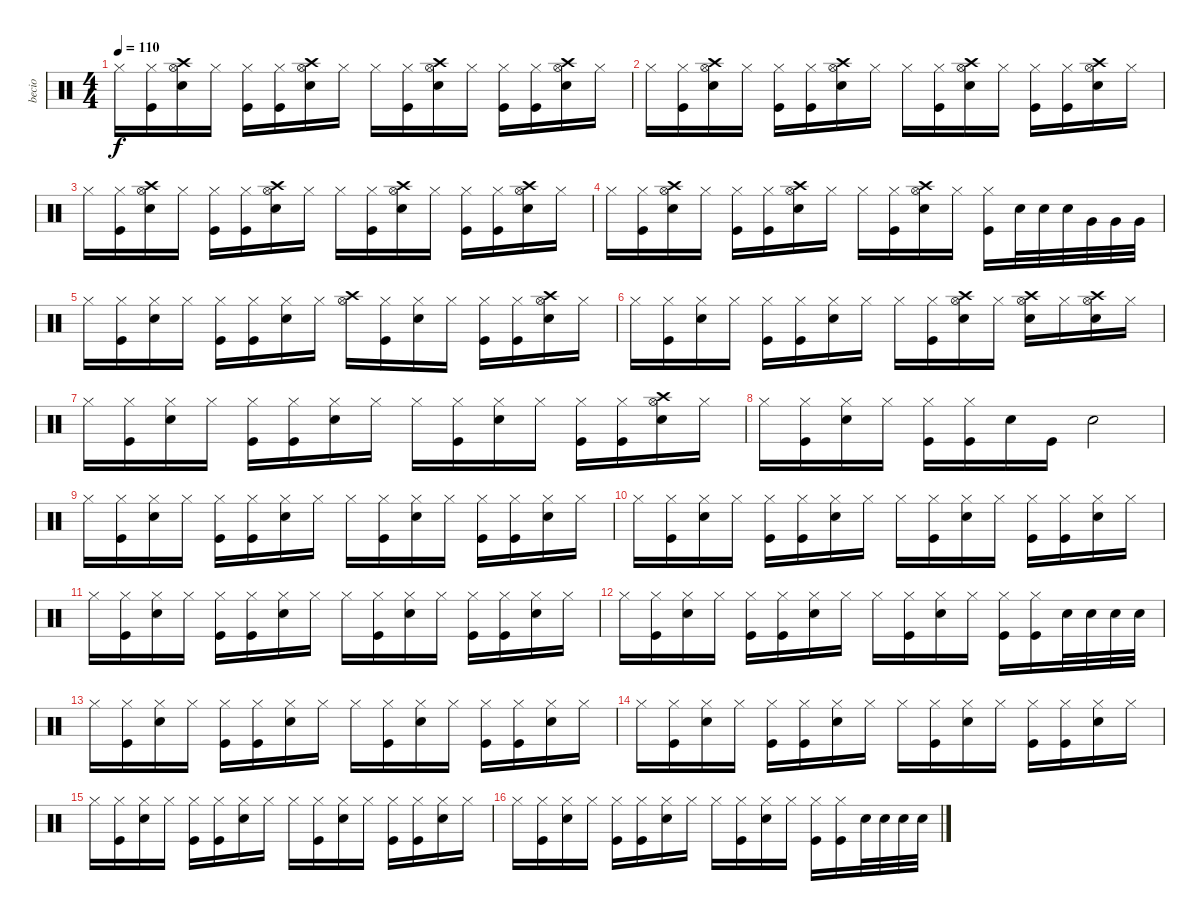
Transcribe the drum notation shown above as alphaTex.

\track ("becio" "becio") {instrument percussion}
\staff {score}
\articulation defaults
\ts (4 4)
\tempo 110
\clef neutral
\ks c "Hi-Hat (closed)".16{dy f}
("Kick (hit)" "Hi-Hat (closed)").16 ("Snare (hit) 2" "Hi-Hat (open)" "Crash high (hit)").16 "Hi-Hat (closed)".16 ("Kick (hit)" "Hi-Hat (closed)").16 ("Kick (hit)" "Hi-Hat (closed)").16 ("Snare (hit) 2" "Hi-Hat (open)" "Crash high (hit)").16 "Hi-Hat (closed)".16 "Hi-Hat (closed)".16 ("Kick (hit)" "Hi-Hat (closed)").16 ("Snare (hit) 2" "Hi-Hat (open)" "Crash high (hit)").16 "Hi-Hat (closed)".16 ("Kick (hit)" "Hi-Hat (closed)").16 ("Kick (hit)" "Hi-Hat (closed)").16 ("Snare (hit) 2" "Hi-Hat (open)" "Crash high (hit)").16 "Hi-Hat (closed)".16 |
"Hi-Hat (closed)".16 ("Kick (hit)" "Hi-Hat (closed)").16 ("Snare (hit) 2" "Hi-Hat (open)" "Crash high (hit)").16 "Hi-Hat (closed)".16 ("Kick (hit)" "Hi-Hat (closed)").16 ("Kick (hit)" "Hi-Hat (closed)").16 ("Snare (hit) 2" "Hi-Hat (open)" "Crash high (hit)").16 "Hi-Hat (closed)".16 "Hi-Hat (closed)".16 ("Kick (hit)" "Hi-Hat (closed)").16 ("Snare (hit) 2" "Hi-Hat (open)" "Crash high (hit)").16 "Hi-Hat (closed)".16 ("Kick (hit)" "Hi-Hat (closed)").16 ("Kick (hit)" "Hi-Hat (closed)").16 ("Snare (hit) 2" "Hi-Hat (open)" "Crash high (hit)").16 "Hi-Hat (closed)".16 |
"Hi-Hat (closed)".16 ("Kick (hit)" "Hi-Hat (closed)").16 ("Snare (hit) 2" "Hi-Hat (open)" "Crash high (hit)").16 "Hi-Hat (closed)".16 ("Kick (hit)" "Hi-Hat (closed)").16 ("Kick (hit)" "Hi-Hat (closed)").16 ("Snare (hit) 2" "Hi-Hat (open)" "Crash high (hit)").16 "Hi-Hat (closed)".16 "Hi-Hat (closed)".16 ("Kick (hit)" "Hi-Hat (closed)").16 ("Snare (hit) 2" "Hi-Hat (open)" "Crash high (hit)").16 "Hi-Hat (closed)".16 ("Kick (hit)" "Hi-Hat (closed)").16 ("Kick (hit)" "Hi-Hat (closed)").16 ("Snare (hit) 2" "Hi-Hat (open)" "Crash high (hit)").16 "Hi-Hat (closed)".16 |
"Hi-Hat (closed)".16 ("Kick (hit)" "Hi-Hat (closed)").16 ("Snare (hit) 2" "Hi-Hat (open)" "Crash high (hit)").16 "Hi-Hat (closed)".16 ("Kick (hit)" "Hi-Hat (closed)").16 ("Kick (hit)" "Hi-Hat (closed)").16 ("Snare (hit) 2" "Hi-Hat (open)" "Crash high (hit)").16 "Hi-Hat (closed)".16 "Hi-Hat (closed)".16 ("Kick (hit)" "Hi-Hat (closed)").16 ("Snare (hit) 2" "Hi-Hat (open)" "Crash high (hit)").16 "Hi-Hat (closed)".16 ("Kick (hit)" "Hi-Hat (closed)").16 "Snare (hit) 2".32 "Snare (hit) 2".32 "Snare (hit) 2".32 "Very Low Tom (hit)".32 "Very Low Tom (hit)".32 "Very Low Tom (hit)".32 |
"Hi-Hat (closed)".16 ("Kick (hit)" "Hi-Hat (closed)").16 ("Snare (hit) 2" "Hi-Hat (closed)").16 "Hi-Hat (closed)".16 ("Kick (hit)" "Hi-Hat (closed)").16 ("Kick (hit)" "Hi-Hat (closed)").16 ("Snare (hit) 2" "Hi-Hat (closed)").16 "Hi-Hat (closed)".16 ("Hi-Hat (open)" "Crash high (hit)").16 ("Kick (hit)" "Hi-Hat (closed)").16 ("Snare (hit) 2" "Hi-Hat (closed)").16 "Hi-Hat (closed)".16 ("Kick (hit)" "Hi-Hat (closed)").16 ("Kick (hit)" "Hi-Hat (closed)").16 ("Snare (hit) 2" "Hi-Hat (open)" "Crash high (hit)").16 "Hi-Hat (closed)".16 |
"Hi-Hat (closed)".16 ("Kick (hit)" "Hi-Hat (closed)").16 ("Snare (hit) 2" "Hi-Hat (closed)").16 "Hi-Hat (closed)".16 ("Kick (hit)" "Hi-Hat (closed)").16 ("Kick (hit)" "Hi-Hat (closed)").16 ("Snare (hit) 2" "Hi-Hat (closed)").16 "Hi-Hat (closed)".16 "Hi-Hat (closed)".16 ("Kick (hit)" "Hi-Hat (closed)").16 ("Snare (hit) 2" "Hi-Hat (open)" "Crash high (hit)").16 "Hi-Hat (closed)".16 ("Snare (hit) 2" "Hi-Hat (open)" "Crash high (hit)").16 "Hi-Hat (closed)".16 ("Snare (hit) 2" "Hi-Hat (open)" "Crash high (hit)").16 "Hi-Hat (closed)".16 |
"Hi-Hat (closed)".16 ("Kick (hit)" "Hi-Hat (closed)").16 ("Snare (hit) 2" "Hi-Hat (closed)").16 "Hi-Hat (closed)".16 ("Kick (hit)" "Hi-Hat (closed)").16 ("Kick (hit)" "Hi-Hat (closed)").16 ("Snare (hit) 2" "Hi-Hat (closed)").16 "Hi-Hat (closed)".16 "Hi-Hat (closed)".16 ("Kick (hit)" "Hi-Hat (closed)").16 ("Snare (hit) 2" "Hi-Hat (closed)").16 "Hi-Hat (closed)".16 ("Kick (hit)" "Hi-Hat (closed)").16 ("Kick (hit)" "Hi-Hat (closed)").16 ("Snare (hit) 2" "Hi-Hat (open)" "Crash high (hit)").16 "Hi-Hat (closed)".16 |
"Hi-Hat (closed)".16 ("Kick (hit)" "Hi-Hat (closed)").16 ("Snare (hit) 2" "Hi-Hat (closed)").16 "Hi-Hat (closed)".16 ("Kick (hit)" "Hi-Hat (closed)").16 ("Kick (hit)" "Hi-Hat (closed)").16 "Snare (hit) 2".16 "Kick (hit)".16 "Snare (hit) 2".2 |
"Hi-Hat (closed)".16 ("Kick (hit)" "Hi-Hat (closed)").16 ("Snare (hit) 2" "Hi-Hat (closed)").16 "Hi-Hat (closed)".16 ("Kick (hit)" "Hi-Hat (closed)").16 ("Kick (hit)" "Hi-Hat (closed)").16 ("Snare (hit) 2" "Hi-Hat (closed)").16 "Hi-Hat (closed)".16 "Hi-Hat (closed)".16 ("Kick (hit)" "Hi-Hat (closed)").16 ("Snare (hit) 2" "Hi-Hat (closed)").16 "Hi-Hat (closed)".16 ("Kick (hit)" "Hi-Hat (closed)").16 ("Kick (hit)" "Hi-Hat (closed)").16 ("Snare (hit) 2" "Hi-Hat (closed)").16 "Hi-Hat (closed)".16 |
"Hi-Hat (closed)".16 ("Kick (hit)" "Hi-Hat (closed)").16 ("Snare (hit) 2" "Hi-Hat (closed)").16 "Hi-Hat (closed)".16 ("Kick (hit)" "Hi-Hat (closed)").16 ("Kick (hit)" "Hi-Hat (closed)").16 ("Snare (hit) 2" "Hi-Hat (closed)").16 "Hi-Hat (closed)".16 "Hi-Hat (closed)".16 ("Kick (hit)" "Hi-Hat (closed)").16 ("Snare (hit) 2" "Hi-Hat (closed)").16 "Hi-Hat (closed)".16 ("Kick (hit)" "Hi-Hat (closed)").16 ("Kick (hit)" "Hi-Hat (closed)").16 ("Snare (hit) 2" "Hi-Hat (closed)").16 "Hi-Hat (closed)".16 |
"Hi-Hat (closed)".16 ("Kick (hit)" "Hi-Hat (closed)").16 ("Snare (hit) 2" "Hi-Hat (closed)").16 "Hi-Hat (closed)".16 ("Kick (hit)" "Hi-Hat (closed)").16 ("Kick (hit)" "Hi-Hat (closed)").16 ("Snare (hit) 2" "Hi-Hat (closed)").16 "Hi-Hat (closed)".16 "Hi-Hat (closed)".16 ("Kick (hit)" "Hi-Hat (closed)").16 ("Snare (hit) 2" "Hi-Hat (closed)").16 "Hi-Hat (closed)".16 ("Kick (hit)" "Hi-Hat (closed)").16 ("Kick (hit)" "Hi-Hat (closed)").16 ("Snare (hit) 2" "Hi-Hat (closed)").16 "Hi-Hat (closed)".16 |
"Hi-Hat (closed)".16 ("Kick (hit)" "Hi-Hat (closed)").16 ("Snare (hit) 2" "Hi-Hat (closed)").16 "Hi-Hat (closed)".16 ("Kick (hit)" "Hi-Hat (closed)").16 ("Kick (hit)" "Hi-Hat (closed)").16 ("Snare (hit) 2" "Hi-Hat (closed)").16 "Hi-Hat (closed)".16 "Hi-Hat (closed)".16 ("Kick (hit)" "Hi-Hat (closed)").16 ("Snare (hit) 2" "Hi-Hat (closed)").16 "Hi-Hat (closed)".16 ("Kick (hit)" "Hi-Hat (closed)").16 ("Kick (hit)" "Hi-Hat (closed)").16 "Snare (hit) 2".32 "Snare (hit) 2".32 "Snare (hit) 2".32 "Snare (hit) 2".32 |
"Hi-Hat (closed)".16 ("Kick (hit)" "Hi-Hat (closed)").16 ("Snare (hit) 2" "Hi-Hat (closed)").16 "Hi-Hat (closed)".16 ("Kick (hit)" "Hi-Hat (closed)").16 ("Kick (hit)" "Hi-Hat (closed)").16 ("Snare (hit) 2" "Hi-Hat (closed)").16 "Hi-Hat (closed)".16 "Hi-Hat (closed)".16 ("Kick (hit)" "Hi-Hat (closed)").16 ("Snare (hit) 2" "Hi-Hat (closed)").16 "Hi-Hat (closed)".16 ("Kick (hit)" "Hi-Hat (closed)").16 ("Kick (hit)" "Hi-Hat (closed)").16 ("Snare (hit) 2" "Hi-Hat (closed)").16 "Hi-Hat (closed)".16 |
"Hi-Hat (closed)".16 ("Kick (hit)" "Hi-Hat (closed)").16 ("Snare (hit) 2" "Hi-Hat (closed)").16 "Hi-Hat (closed)".16 ("Kick (hit)" "Hi-Hat (closed)").16 ("Kick (hit)" "Hi-Hat (closed)").16 ("Snare (hit) 2" "Hi-Hat (closed)").16 "Hi-Hat (closed)".16 "Hi-Hat (closed)".16 ("Kick (hit)" "Hi-Hat (closed)").16 ("Snare (hit) 2" "Hi-Hat (closed)").16 "Hi-Hat (closed)".16 ("Kick (hit)" "Hi-Hat (closed)").16 ("Kick (hit)" "Hi-Hat (closed)").16 ("Snare (hit) 2" "Hi-Hat (closed)").16 "Hi-Hat (closed)".16 |
"Hi-Hat (closed)".16 ("Kick (hit)" "Hi-Hat (closed)").16 ("Snare (hit) 2" "Hi-Hat (closed)").16 "Hi-Hat (closed)".16 ("Kick (hit)" "Hi-Hat (closed)").16 ("Kick (hit)" "Hi-Hat (closed)").16 ("Snare (hit) 2" "Hi-Hat (closed)").16 "Hi-Hat (closed)".16 "Hi-Hat (closed)".16 ("Kick (hit)" "Hi-Hat (closed)").16 ("Snare (hit) 2" "Hi-Hat (closed)").16 "Hi-Hat (closed)".16 ("Kick (hit)" "Hi-Hat (closed)").16 ("Kick (hit)" "Hi-Hat (closed)").16 ("Snare (hit) 2" "Hi-Hat (closed)").16 "Hi-Hat (closed)".16 |
"Hi-Hat (closed)".16 ("Kick (hit)" "Hi-Hat (closed)").16 ("Snare (hit) 2" "Hi-Hat (closed)").16 "Hi-Hat (closed)".16 ("Kick (hit)" "Hi-Hat (closed)").16 ("Kick (hit)" "Hi-Hat (closed)").16 ("Snare (hit) 2" "Hi-Hat (closed)").16 "Hi-Hat (closed)".16 "Hi-Hat (closed)".16 ("Kick (hit)" "Hi-Hat (closed)").16 ("Snare (hit) 2" "Hi-Hat (closed)").16 "Hi-Hat (closed)".16 ("Kick (hit)" "Hi-Hat (closed)").16 ("Kick (hit)" "Hi-Hat (closed)").16 "Snare (hit) 2".32 "Snare (hit) 2".32 "Snare (hit) 2".32 "Snare (hit) 2".32
